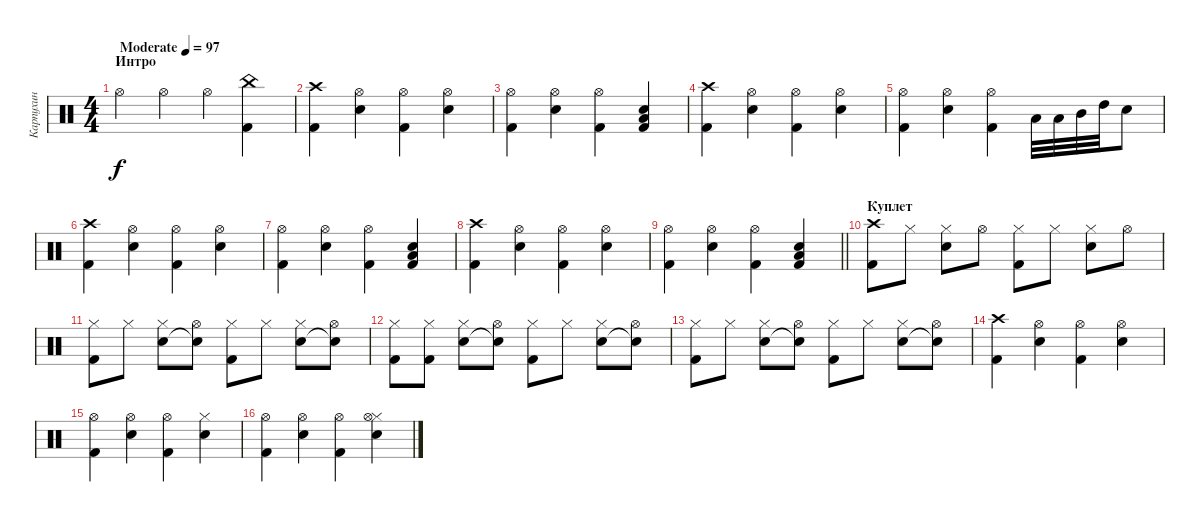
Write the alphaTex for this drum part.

\track ("Карпухин" "Карпухин") {instrument percussion}
\staff {score}
\articulation defaults
\ts (4 4)
\section ("" "Интро")
\tempo (97 "Moderate")
\clef neutral
\ks c "Hi-Hat (open)".4{dy f} "Hi-Hat (open)".4 "Hi-Hat (open)".4
("China (hit)" "Kick (hit) 2").4 |
("Crash high (hit)" "Kick (hit) 2").4 ("Electric Snare (hit)" "Hi-Hat (open)").4 ("Kick (hit) 2" "Hi-Hat (open)").4 ("Electric Snare (hit)" "Hi-Hat (open)").4 |
("Kick (hit) 2" "Hi-Hat (open)").4 ("Electric Snare (hit)" "Hi-Hat (open)").4 ("Kick (hit) 2" "Hi-Hat (open)").4 ("Electric Snare (hit)" "Low Floor Tom (hit)" "Kick (hit) 2").4 |
("Crash high (hit)" "Kick (hit) 2").4 ("Electric Snare (hit)" "Hi-Hat (open)").4 ("Kick (hit) 2" "Hi-Hat (open)").4 ("Electric Snare (hit)" "Hi-Hat (open)").4 |
("Kick (hit) 2" "Hi-Hat (open)").4 ("Electric Snare (hit)" "Hi-Hat (open)").4 ("Kick (hit) 2" "Hi-Hat (open)").4 "Low Tom (hit)".32 "Low Tom (hit)".32 "Mid Tom (hit)".32 "High Tom (hit)".32 "Snare (hit) 2".8 |
("Crash high (hit)" "Kick (hit) 2").4 ("Electric Snare (hit)" "Hi-Hat (open)").4 ("Kick (hit) 2" "Hi-Hat (open)").4 ("Electric Snare (hit)" "Hi-Hat (open)").4 |
("Kick (hit) 2" "Hi-Hat (open)").4 ("Electric Snare (hit)" "Hi-Hat (open)").4 ("Kick (hit) 2" "Hi-Hat (open)").4 ("Electric Snare (hit)" "Low Floor Tom (hit)" "Kick (hit) 2").4 |
("Crash high (hit)" "Kick (hit) 2").4 ("Electric Snare (hit)" "Hi-Hat (open)").4 ("Kick (hit) 2" "Hi-Hat (open)").4 ("Electric Snare (hit)" "Hi-Hat (open)").4 |
\barLineRight lightlight
("Kick (hit) 2" "Hi-Hat (open)").4 ("Electric Snare (hit)" "Hi-Hat (open)").4 ("Kick (hit) 2" "Hi-Hat (open)").4 ("Electric Snare (hit)" "Low Floor Tom (hit)" "Kick (hit) 2").4 |
\section ("" "Куплет")
("Crash high (hit)" "Kick (hit) 2").8 "Hi-Hat (closed)".8 ("Hi-Hat (closed)" "Snare (hit) 2").8 "Hi-Hat (open)".8 ("Hi-Hat (closed)" "Kick (hit) 2").8 "Hi-Hat (closed)".8 ("Hi-Hat (closed)" "Snare (hit) 2").8 "Hi-Hat (open)".8 |
("Hi-Hat (closed)" "Kick (hit) 2").8 "Hi-Hat (closed)".8 ("Hi-Hat (closed)" "Snare (hit) 2").8 ("Hi-Hat (open)" "Snare (hit) 2"{t}).8 ("Hi-Hat (closed)" "Kick (hit) 2").8 "Hi-Hat (closed)".8 ("Hi-Hat (closed)" "Snare (hit) 2").8 ("Hi-Hat (open)" "Snare (hit) 2"{t}).8 |
("Hi-Hat (closed)" "Kick (hit) 2").8 ("Kick (hit) 2" "Hi-Hat (closed)").8 ("Hi-Hat (closed)" "Snare (hit) 2").8 ("Hi-Hat (open)" "Snare (hit) 2"{t}).8 ("Hi-Hat (closed)" "Kick (hit) 2").8 "Hi-Hat (closed)".8 ("Hi-Hat (closed)" "Snare (hit) 2").8 ("Hi-Hat (open)" "Snare (hit) 2"{t}).8 |
("Hi-Hat (closed)" "Kick (hit) 2").8 "Hi-Hat (closed)".8 ("Hi-Hat (closed)" "Snare (hit) 2").8 ("Hi-Hat (open)" "Snare (hit) 2"{t}).8 ("Hi-Hat (closed)" "Kick (hit) 2").8 "Hi-Hat (closed)".8 ("Hi-Hat (closed)" "Snare (hit) 2").8 ("Hi-Hat (open)" "Snare (hit) 2"{t}).8 |
("Crash high (hit)" "Kick (hit) 2").4 ("Electric Snare (hit)" "Hi-Hat (open)").4 ("Kick (hit) 2" "Hi-Hat (open)").4 ("Electric Snare (hit)" "Hi-Hat (open)").4 |
("Kick (hit) 2" "Hi-Hat (open)").4 ("Electric Snare (hit)" "Hi-Hat (open)").4 ("Kick (hit) 2" "Hi-Hat (open)").4 ("Electric Snare (hit)" "Hi-Hat (closed)").4 |
("Kick (hit) 2" "Hi-Hat (open)").4 ("Electric Snare (hit)" "Hi-Hat (open)").4 ("Kick (hit) 2" "Hi-Hat (open)").4 ("Electric Snare (hit)" "Hi-Hat (closed)" "Hi-Hat (open)").4
